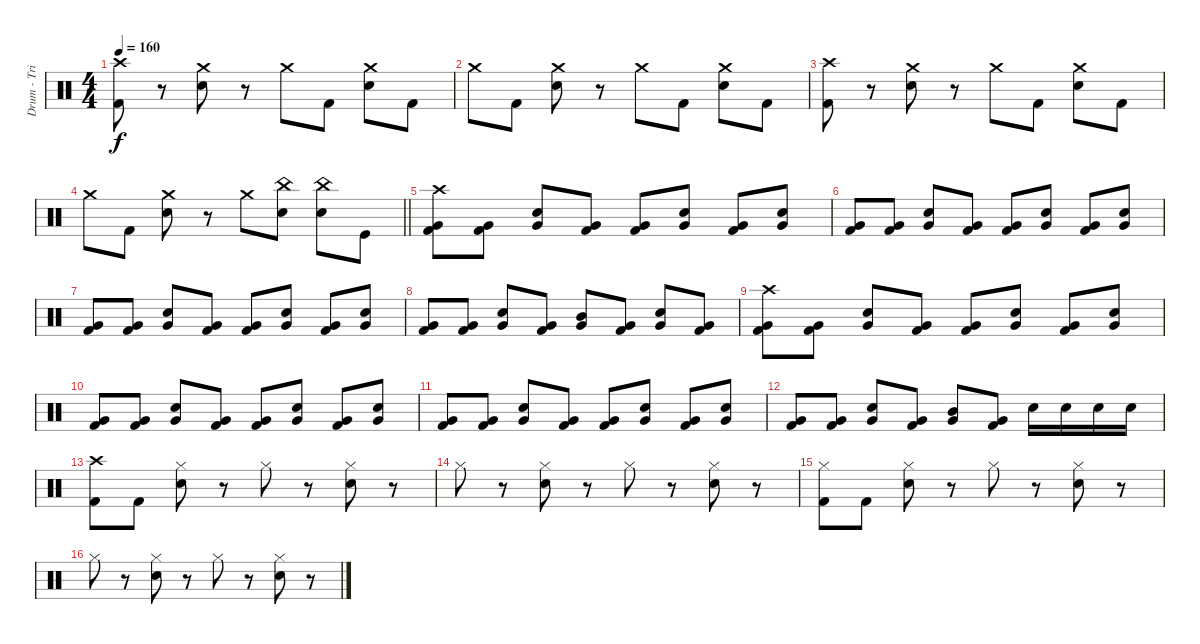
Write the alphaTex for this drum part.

\track ("Drum - Trian" "Drum - Tri") {instrument percussion}
\staff {score}
\articulation defaults
\ts (4 4)
\tempo 160
\clef neutral
\ks c
("Crash high (hit)" "Kick (hit) 2").8{dy f} r.8 ("Crash medium (hit)" "Electric Snare (hit)").8 r.8 "Crash medium (hit)".8 "Kick (hit) 2".8 ("Crash medium (hit)" "Electric Snare (hit)").8 "Kick (hit) 2".8 |
"Crash medium (hit)".8 "Kick (hit) 2".8 ("Crash medium (hit)" "Electric Snare (hit)").8 r.8 "Crash medium (hit)".8 "Kick (hit) 2".8 ("Crash medium (hit)" "Electric Snare (hit)").8 "Kick (hit) 2".8 |
("Crash high (hit)" "Kick (hit) 2").8 r.8 ("Crash medium (hit)" "Electric Snare (hit)").8 r.8 "Crash medium (hit)".8 "Kick (hit) 2".8 ("Crash medium (hit)" "Electric Snare (hit)").8 "Kick (hit) 2".8 |
\barLineRight lightlight "Crash medium (hit)".8 "Kick (hit) 2".8
("Crash medium (hit)" "Electric Snare (hit)").8 r.8 "Crash medium (hit)".8 ("China (hit)" "Electric Snare (hit)").8 ("China (hit)" "Electric Snare (hit)").8 "Kick (hit)".8 |
("Crash high (hit)" "Very Low Tom (hit)" "Kick (hit) 2").8 ("Very Low Tom (hit)" "Kick (hit) 2").8 ("Electric Snare (hit)" "Very Low Tom (hit)").8 ("Very Low Tom (hit)" "Kick (hit) 2").8 ("Very Low Tom (hit)" "Kick (hit) 2").8 ("Electric Snare (hit)" "Very Low Tom (hit)").8 ("Very Low Tom (hit)" "Kick (hit) 2").8 ("Electric Snare (hit)" "Very Low Tom (hit)").8 |
("Very Low Tom (hit)" "Kick (hit) 2").8 ("Very Low Tom (hit)" "Kick (hit) 2").8 ("Electric Snare (hit)" "Very Low Tom (hit)").8 ("Very Low Tom (hit)" "Kick (hit) 2").8 ("Very Low Tom (hit)" "Kick (hit) 2").8 ("Electric Snare (hit)" "Very Low Tom (hit)").8 ("Very Low Tom (hit)" "Kick (hit) 2").8 ("Electric Snare (hit)" "Very Low Tom (hit)").8 |
("Very Low Tom (hit)" "Kick (hit) 2").8 ("Very Low Tom (hit)" "Kick (hit) 2").8 ("Electric Snare (hit)" "Very Low Tom (hit)").8 ("Very Low Tom (hit)" "Kick (hit) 2").8 ("Very Low Tom (hit)" "Kick (hit) 2").8 ("Electric Snare (hit)" "Very Low Tom (hit)").8 ("Very Low Tom (hit)" "Kick (hit) 2").8 ("Electric Snare (hit)" "Very Low Tom (hit)").8 |
("Very Low Tom (hit)" "Kick (hit) 2").8 ("Very Low Tom (hit)" "Kick (hit) 2").8 ("Electric Snare (hit)" "Very Low Tom (hit)").8 ("Very Low Tom (hit)" "Kick (hit) 2").8 ("Very Low Tom (hit)" "Mid Tom (hit)").8 ("Very Low Tom (hit)" "Kick (hit) 2").8 ("Electric Snare (hit)" "Very Low Tom (hit)").8 ("Very Low Tom (hit)" "Kick (hit) 2").8 |
("Crash high (hit)" "Very Low Tom (hit)" "Kick (hit) 2").8 ("Very Low Tom (hit)" "Kick (hit) 2").8 ("Electric Snare (hit)" "Very Low Tom (hit)").8 ("Very Low Tom (hit)" "Kick (hit) 2").8 ("Very Low Tom (hit)" "Kick (hit) 2").8 ("Electric Snare (hit)" "Very Low Tom (hit)").8 ("Very Low Tom (hit)" "Kick (hit) 2").8 ("Electric Snare (hit)" "Very Low Tom (hit)").8 |
("Very Low Tom (hit)" "Kick (hit) 2").8 ("Very Low Tom (hit)" "Kick (hit) 2").8 ("Electric Snare (hit)" "Very Low Tom (hit)").8 ("Very Low Tom (hit)" "Kick (hit) 2").8 ("Very Low Tom (hit)" "Kick (hit) 2").8 ("Electric Snare (hit)" "Very Low Tom (hit)").8 ("Very Low Tom (hit)" "Kick (hit) 2").8 ("Electric Snare (hit)" "Very Low Tom (hit)").8 |
("Very Low Tom (hit)" "Kick (hit) 2").8 ("Very Low Tom (hit)" "Kick (hit) 2").8 ("Electric Snare (hit)" "Very Low Tom (hit)").8 ("Very Low Tom (hit)" "Kick (hit) 2").8 ("Very Low Tom (hit)" "Kick (hit) 2").8 ("Electric Snare (hit)" "Very Low Tom (hit)").8 ("Very Low Tom (hit)" "Kick (hit) 2").8 ("Electric Snare (hit)" "Very Low Tom (hit)").8 |
("Very Low Tom (hit)" "Kick (hit) 2").8 ("Very Low Tom (hit)" "Kick (hit) 2").8 ("Electric Snare (hit)" "Very Low Tom (hit)").8 ("Very Low Tom (hit)" "Kick (hit) 2").8 ("Very Low Tom (hit)" "Mid Tom (hit)").8 ("Very Low Tom (hit)" "Kick (hit) 2").8 "Electric Snare (hit)".16 "Electric Snare (hit)".16 "Electric Snare (hit)".16 "Electric Snare (hit)".16 |
("Crash high (hit)" "Kick (hit) 2").8 "Kick (hit) 2".8 ("Hi-Hat (closed)" "Electric Snare (hit)").8 r.8 "Hi-Hat (closed)".8 r.8 ("Hi-Hat (closed)" "Electric Snare (hit)").8 r.8 |
"Hi-Hat (closed)".8 r.8 ("Hi-Hat (closed)" "Electric Snare (hit)").8 r.8 "Hi-Hat (closed)".8 r.8 ("Hi-Hat (closed)" "Electric Snare (hit)").8 r.8 |
("Hi-Hat (closed)" "Kick (hit) 2").8 "Kick (hit) 2".8 ("Hi-Hat (closed)" "Electric Snare (hit)").8 r.8 "Hi-Hat (closed)".8 r.8 ("Hi-Hat (closed)" "Electric Snare (hit)").8 r.8 |
"Hi-Hat (closed)".8 r.8 ("Hi-Hat (closed)" "Electric Snare (hit)").8 r.8 "Hi-Hat (closed)".8 r.8 ("Hi-Hat (closed)" "Electric Snare (hit)").8 r.8
